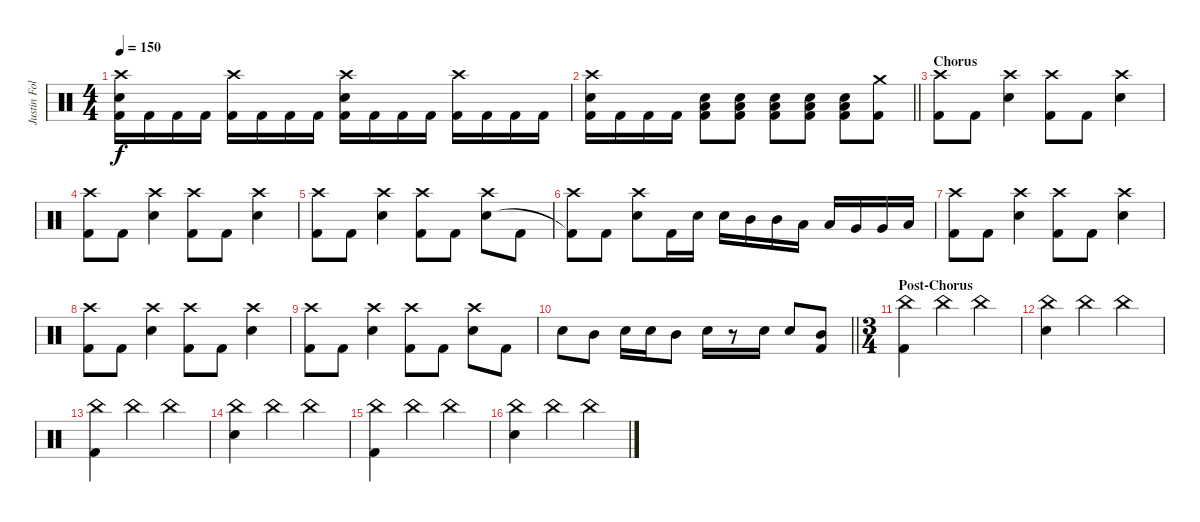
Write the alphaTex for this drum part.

\track ("Justin Foley" "Justin Fol") {instrument percussion}
\staff {score}
\articulation defaults
\ts (4 4)
\tempo 150
\clef neutral
\ks c
("Crash high (hit)" "Snare (hit) 2" "Kick (hit) 2").16{dy f} "Kick (hit) 2".16 "Kick (hit) 2".16 "Kick (hit) 2".16 ("Crash high (hit)" "Kick (hit) 2").16 "Kick (hit) 2".16 "Kick (hit) 2".16 "Kick (hit) 2".16 ("Crash high (hit)" "Snare (hit) 2" "Kick (hit) 2").16 "Kick (hit) 2".16 "Kick (hit) 2".16 "Kick (hit) 2".16 ("Crash high (hit)" "Kick (hit) 2").16 "Kick (hit) 2".16 "Kick (hit) 2".16 "Kick (hit) 2".16 |
\barLineRight lightlight
("Crash high (hit)" "Snare (hit) 2" "Kick (hit) 2").16 "Kick (hit) 2".16 "Kick (hit) 2".16 "Kick (hit) 2".16 ("Low Floor Tom (hit)" "Snare (hit) 2" "Kick (hit) 2").8 ("Low Floor Tom (hit)" "Snare (hit) 2" "Kick (hit) 2").8 ("Low Floor Tom (hit)" "Snare (hit) 2" "Kick (hit) 2").8 ("Low Floor Tom (hit)" "Snare (hit) 2" "Kick (hit) 2").8 ("Low Floor Tom (hit)" "Snare (hit) 2" "Kick (hit) 2").8 ("Crash medium (hit)" "Kick (hit) 2").8 |
\section ("" "Chorus")
("Crash high (hit)" "Kick (hit) 2").8 "Kick (hit) 2".8 ("Crash high (hit)" "Snare (hit) 2").4 ("Crash high (hit)" "Kick (hit) 2").8 "Kick (hit) 2".8 ("Crash high (hit)" "Snare (hit) 2").4 |
("Crash high (hit)" "Kick (hit) 2").8 "Kick (hit) 2".8 ("Crash high (hit)" "Snare (hit) 2").4 ("Crash high (hit)" "Kick (hit) 2").8 "Kick (hit) 2".8 ("Crash high (hit)" "Snare (hit) 2").4 |
("Crash high (hit)" "Kick (hit) 2").8 "Kick (hit) 2".8 ("Crash high (hit)" "Snare (hit) 2").4 ("Crash high (hit)" "Kick (hit) 2").8 "Kick (hit) 2".8 ("Crash high (hit)" "Snare (hit) 2").8 "Kick (hit) 2".8 |
("Crash high (hit)" "Kick (hit) 2"{t}).8 "Kick (hit) 2".8 ("Crash high (hit)" "Snare (hit) 2").8 "Kick (hit) 2".16 "Snare (hit) 2".16 "Snare (hit) 2".16 "Mid Tom (hit)".16 "Mid Tom (hit)".16 "Low Tom (hit)".16 "Low Tom (hit)".16 "Very Low Tom (hit)".16 "Very Low Tom (hit)".16 "Low Floor Tom (hit)".16 |
("Crash high (hit)" "Kick (hit) 2").8 "Kick (hit) 2".8 ("Crash high (hit)" "Snare (hit) 2").4 ("Crash high (hit)" "Kick (hit) 2").8 "Kick (hit) 2".8 ("Crash high (hit)" "Snare (hit) 2").4 |
("Crash high (hit)" "Kick (hit) 2").8 "Kick (hit) 2".8 ("Crash high (hit)" "Snare (hit) 2").4 ("Crash high (hit)" "Kick (hit) 2").8 "Kick (hit) 2".8 ("Crash high (hit)" "Snare (hit) 2").4 |
("Crash high (hit)" "Kick (hit) 2").8 "Kick (hit) 2".8 ("Crash high (hit)" "Snare (hit) 2").4 ("Crash high (hit)" "Kick (hit) 2").8 "Kick (hit) 2".8 ("Crash high (hit)" "Snare (hit) 2").8 "Kick (hit) 2".8 |
\barLineRight lightlight "Snare (hit) 2".8 "Mid Tom (hit)".8 "Snare (hit) 2".16 "Snare (hit) 2".16 "Mid Tom (hit)".8 "Snare (hit) 2".16
r.8 "Snare (hit) 2".16 "Snare (hit) 2".8 ("Mid Tom (hit)" "Kick (hit) 2").8 |
\ts (3 4)
\section ("" "Post-Chorus")
("China (hit)" "Kick (hit) 2").4 "China (hit)".4 "China (hit)".4 |
("China (hit)" "Snare (hit) 2").4 "China (hit)".4 "China (hit)".4 |
("China (hit)" "Kick (hit) 2").4 "China (hit)".4 "China (hit)".4 |
("China (hit)" "Snare (hit) 2").4 "China (hit)".4 "China (hit)".4 |
("China (hit)" "Kick (hit) 2").4 "China (hit)".4 "China (hit)".4 |
("China (hit)" "Snare (hit) 2").4 "China (hit)".4 "China (hit)".4
